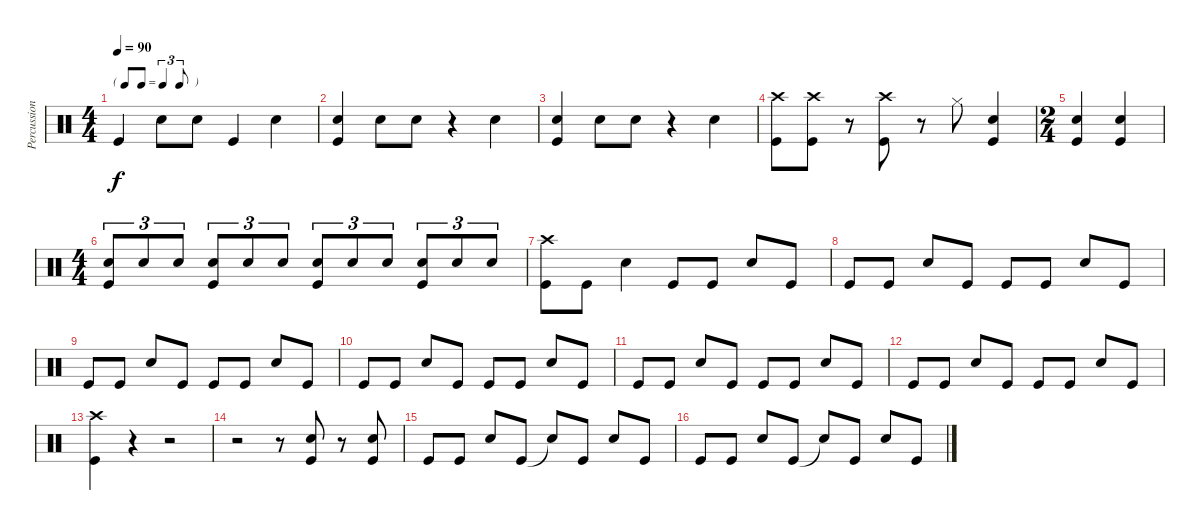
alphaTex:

\track ("Percussion" "Percussion") {instrument percussion}
\staff {score}
\articulation defaults
\ts (4 4)
\tf triplet8th
\tempo 90
\clef neutral
\ks c "Kick (hit)".4{dy f} "Snare (hit) 2".8 "Snare (hit) 2".8 "Kick (hit)".4 "Snare (hit) 2".4
|
("Snare (hit) 2" "Kick (hit)").4 "Snare (hit) 2".8 "Snare (hit) 2".8 r.4 "Snare (hit) 2".4 |
("Snare (hit) 2" "Kick (hit)").4 "Snare (hit) 2".8 "Snare (hit) 2".8 r.4 "Snare (hit) 2".4 |
("Crash high (hit)" "Kick (hit)").8 ("Crash high (hit)" "Kick (hit)").8 r.8 ("Crash high (hit)" "Kick (hit)").8 r.8 "Hi-Hat (closed)".8 ("Snare (hit) 2" "Kick (hit)").4 |
\ts (2 4)
("Snare (hit) 2" "Kick (hit)").4 ("Snare (hit) 2" "Kick (hit)").4 |
\ts (4 4)
("Snare (hit) 2" "Kick (hit)").8{tu (3 2)} "Snare (hit) 2".8{tu (3 2)} "Snare (hit) 2".8{tu (3 2)} ("Snare (hit) 2" "Kick (hit)").8{tu (3 2)} "Snare (hit) 2".8{tu (3 2)} "Snare (hit) 2".8{tu (3 2)} ("Snare (hit) 2" "Kick (hit)").8{tu (3 2)} "Snare (hit) 2".8{tu (3 2)} "Snare (hit) 2".8{tu (3 2)} ("Snare (hit) 2" "Kick (hit)").8{tu (3 2)} "Snare (hit) 2".8{tu (3 2)} "Snare (hit) 2".8{tu (3 2)} |
("Crash high (hit)" "Kick (hit)").8 "Kick (hit)".8 "Snare (hit) 2".4 "Kick (hit)".8 "Kick (hit)".8 "Snare (hit) 2".8 "Kick (hit)".8 |
"Kick (hit)".8 "Kick (hit)".8 "Snare (hit) 2".8 "Kick (hit)".8 "Kick (hit)".8 "Kick (hit)".8 "Snare (hit) 2".8 "Kick (hit)".8 |
"Kick (hit)".8 "Kick (hit)".8 "Snare (hit) 2".8 "Kick (hit)".8 "Kick (hit)".8 "Kick (hit)".8 "Snare (hit) 2".8 "Kick (hit)".8 |
"Kick (hit)".8 "Kick (hit)".8 "Snare (hit) 2".8 "Kick (hit)".8 "Kick (hit)".8 "Kick (hit)".8 "Snare (hit) 2".8 "Kick (hit)".8 |
"Kick (hit)".8 "Kick (hit)".8 "Snare (hit) 2".8 "Kick (hit)".8 "Kick (hit)".8 "Kick (hit)".8 "Snare (hit) 2".8 "Kick (hit)".8 |
"Kick (hit)".8 "Kick (hit)".8 "Snare (hit) 2".8 "Kick (hit)".8 "Kick (hit)".8 "Kick (hit)".8 "Snare (hit) 2".8 "Kick (hit)".8 |
("Crash high (hit)" "Kick (hit)").4 r.4 r.2 |
r.2 r.8 ("Snare (hit) 2" "Kick (hit)").8 r.8 ("Snare (hit) 2" "Kick (hit)").8 |
"Kick (hit)".8 "Kick (hit)".8 "Snare (hit) 2".8 "Kick (hit)".8 "Snare (hit)"{t}.8 "Kick (hit)".8 "Snare (hit) 2".8 "Kick (hit)".8 |
"Kick (hit)".8 "Kick (hit)".8 "Snare (hit) 2".8 "Kick (hit)".8 "Snare (hit)"{t}.8 "Kick (hit)".8 "Snare (hit) 2".8 "Kick (hit)".8
